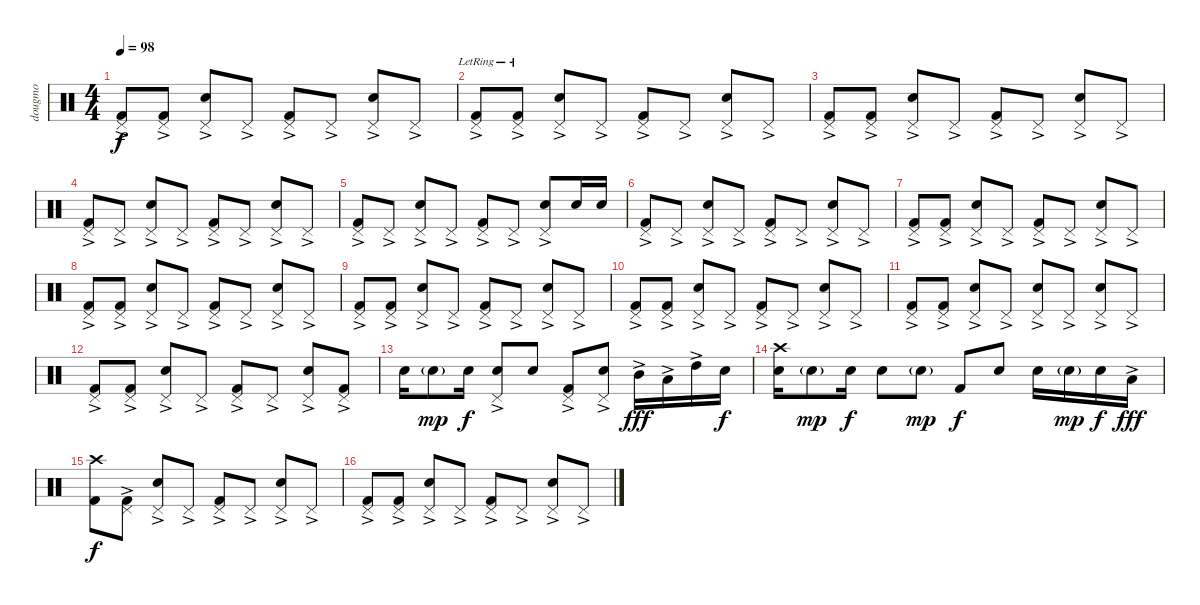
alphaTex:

\track ("dougmo" "dougmo") {instrument percussion}
\staff {score}
\articulation defaults
\ts (4 4)
\tempo 98
\clef neutral
\ks c
("Pedal Hi-Hat (hit)"{ac} "Kick (hit) 2").8{dy f} ("Pedal Hi-Hat (hit)"{ac} "Kick (hit) 2").8 ("Pedal Hi-Hat (hit)"{ac} "Electric Snare (hit)").8 "Pedal Hi-Hat (hit)"{ac}.8 ("Pedal Hi-Hat (hit)"{ac} "Kick (hit) 2").8 "Pedal Hi-Hat (hit)"{ac}.8 ("Pedal Hi-Hat (hit)"{ac} "Electric Snare (hit)").8 "Pedal Hi-Hat (hit)"{ac}.8 |
("Pedal Hi-Hat (hit)"{ac lr} "Kick (hit) 2").8 ("Pedal Hi-Hat (hit)"{ac lr} "Kick (hit) 2").8 ("Pedal Hi-Hat (hit)"{ac} "Electric Snare (hit)").8 "Pedal Hi-Hat (hit)"{ac}.8 ("Pedal Hi-Hat (hit)"{ac} "Kick (hit) 2").8 "Pedal Hi-Hat (hit)"{ac}.8 ("Pedal Hi-Hat (hit)"{ac} "Electric Snare (hit)").8 "Pedal Hi-Hat (hit)"{ac}.8 |
("Pedal Hi-Hat (hit)"{ac} "Kick (hit) 2").8 ("Pedal Hi-Hat (hit)"{ac} "Kick (hit) 2").8 ("Pedal Hi-Hat (hit)"{ac} "Electric Snare (hit)").8 "Pedal Hi-Hat (hit)"{ac}.8 ("Pedal Hi-Hat (hit)"{ac} "Kick (hit) 2").8 "Pedal Hi-Hat (hit)"{ac}.8 ("Pedal Hi-Hat (hit)"{ac} "Electric Snare (hit)").8 "Pedal Hi-Hat (hit)"{ac}.8 |
("Pedal Hi-Hat (hit)"{ac} "Kick (hit) 2").8 "Pedal Hi-Hat (hit)"{ac}.8 ("Pedal Hi-Hat (hit)"{ac} "Electric Snare (hit)").8 "Pedal Hi-Hat (hit)"{ac}.8 ("Pedal Hi-Hat (hit)"{ac} "Kick (hit) 2").8 "Pedal Hi-Hat (hit)"{ac}.8 ("Pedal Hi-Hat (hit)"{ac} "Electric Snare (hit)").8 "Pedal Hi-Hat (hit)"{ac}.8 |
("Pedal Hi-Hat (hit)"{ac} "Kick (hit) 2").8 "Pedal Hi-Hat (hit)"{ac}.8 ("Pedal Hi-Hat (hit)"{ac} "Electric Snare (hit)").8 "Pedal Hi-Hat (hit)"{ac}.8 ("Pedal Hi-Hat (hit)"{ac} "Kick (hit) 2").8 "Pedal Hi-Hat (hit)"{ac}.8 ("Pedal Hi-Hat (hit)"{ac} "Electric Snare (hit)").8 "Electric Snare (hit)".16 "Electric Snare (hit)".16 |
("Pedal Hi-Hat (hit)"{ac} "Kick (hit) 2").8 "Pedal Hi-Hat (hit)"{ac}.8 ("Pedal Hi-Hat (hit)"{ac} "Electric Snare (hit)").8 "Pedal Hi-Hat (hit)"{ac}.8 ("Pedal Hi-Hat (hit)"{ac} "Kick (hit) 2").8 "Pedal Hi-Hat (hit)"{ac}.8 ("Pedal Hi-Hat (hit)"{ac} "Electric Snare (hit)").8 "Pedal Hi-Hat (hit)"{ac}.8 |
("Pedal Hi-Hat (hit)"{ac} "Kick (hit) 2").8 ("Pedal Hi-Hat (hit)"{ac} "Kick (hit) 2").8 ("Pedal Hi-Hat (hit)"{ac} "Electric Snare (hit)").8 "Pedal Hi-Hat (hit)"{ac}.8 ("Pedal Hi-Hat (hit)"{ac} "Kick (hit) 2").8 "Pedal Hi-Hat (hit)"{ac}.8 ("Pedal Hi-Hat (hit)"{ac} "Electric Snare (hit)").8 "Pedal Hi-Hat (hit)"{ac}.8 |
("Pedal Hi-Hat (hit)"{ac} "Kick (hit) 2").8 ("Pedal Hi-Hat (hit)"{ac} "Kick (hit) 2").8 ("Pedal Hi-Hat (hit)"{ac} "Electric Snare (hit)").8 "Pedal Hi-Hat (hit)"{ac}.8 ("Pedal Hi-Hat (hit)"{ac} "Kick (hit) 2").8 "Pedal Hi-Hat (hit)"{ac}.8 ("Pedal Hi-Hat (hit)"{ac} "Electric Snare (hit)").8 "Pedal Hi-Hat (hit)"{ac}.8 |
("Pedal Hi-Hat (hit)"{ac} "Kick (hit) 2").8 ("Pedal Hi-Hat (hit)"{ac} "Kick (hit) 2").8 ("Pedal Hi-Hat (hit)"{ac} "Electric Snare (hit)").8 "Pedal Hi-Hat (hit)"{ac}.8 ("Pedal Hi-Hat (hit)"{ac} "Kick (hit) 2").8 "Pedal Hi-Hat (hit)"{ac}.8 ("Pedal Hi-Hat (hit)"{ac} "Electric Snare (hit)").8 "Pedal Hi-Hat (hit)"{ac}.8 |
("Pedal Hi-Hat (hit)"{ac} "Kick (hit) 2").8 ("Pedal Hi-Hat (hit)"{ac} "Kick (hit) 2").8 ("Pedal Hi-Hat (hit)"{ac} "Electric Snare (hit)").8 "Pedal Hi-Hat (hit)"{ac}.8 ("Pedal Hi-Hat (hit)"{ac} "Kick (hit) 2").8 "Pedal Hi-Hat (hit)"{ac}.8 ("Pedal Hi-Hat (hit)"{ac} "Electric Snare (hit)").8 "Pedal Hi-Hat (hit)"{ac}.8 |
("Pedal Hi-Hat (hit)"{ac} "Kick (hit) 2").8 ("Pedal Hi-Hat (hit)"{ac} "Kick (hit) 2").8 ("Pedal Hi-Hat (hit)"{ac} "Electric Snare (hit)").8 "Pedal Hi-Hat (hit)"{ac}.8 ("Pedal Hi-Hat (hit)"{ac} "Electric Snare (hit)").8 "Pedal Hi-Hat (hit)"{ac}.8 ("Pedal Hi-Hat (hit)"{ac} "Electric Snare (hit)").8 "Pedal Hi-Hat (hit)"{ac}.8 |
("Pedal Hi-Hat (hit)"{ac} "Kick (hit) 2").8 ("Pedal Hi-Hat (hit)"{ac} "Kick (hit) 2").8 ("Pedal Hi-Hat (hit)"{ac} "Electric Snare (hit)").8 "Pedal Hi-Hat (hit)"{ac}.8 ("Pedal Hi-Hat (hit)"{ac} "Kick (hit) 2").8 "Pedal Hi-Hat (hit)"{ac}.8 ("Pedal Hi-Hat (hit)"{ac} "Electric Snare (hit)").8 ("Pedal Hi-Hat (hit)"{ac} "Kick (hit) 2").8 |
"Electric Snare (hit)".16 "Electric Snare (hit)"{g}.8{dy mp} "Electric Snare (hit)".16{dy f} ("Pedal Hi-Hat (hit)"{ac} "Electric Snare (hit)").8 "Electric Snare (hit)".8 ("Pedal Hi-Hat (hit)"{ac} "Kick (hit) 2").8 ("Pedal Hi-Hat (hit)"{ac} "Electric Snare (hit)").8 "Mid Tom (hit)"{ac}.16{dy fff} "Low Tom (hit)"{ac}.16 "High Tom (hit)"{ac}.16 "Electric Snare (hit)".16{dy f} |
("Crash high (hit)" "Electric Snare (hit)").16 "Electric Snare (hit)"{g}.8{dy mp} "Electric Snare (hit)".16{dy f} "Electric Snare (hit)".8 "Electric Snare (hit)"{g}.8{dy mp} "Kick (hit) 2".8{dy f} "Electric Snare (hit)".8 "Electric Snare (hit)".16 "Electric Snare (hit)"{g}.16{dy mp} "Electric Snare (hit)".16{dy f} "Low Tom (hit)"{ac}.16{dy fff} |
("Crash high (hit)" "Kick (hit) 2").8{dy f} ("Pedal Hi-Hat (hit)"{ac} "Kick (hit) 2").8 ("Pedal Hi-Hat (hit)"{ac} "Electric Snare (hit)").8 "Pedal Hi-Hat (hit)"{ac}.8 ("Pedal Hi-Hat (hit)"{ac} "Kick (hit) 2").8 "Pedal Hi-Hat (hit)"{ac}.8 ("Pedal Hi-Hat (hit)"{ac} "Electric Snare (hit)").8 "Pedal Hi-Hat (hit)"{ac}.8 |
("Pedal Hi-Hat (hit)"{ac} "Kick (hit) 2").8 ("Pedal Hi-Hat (hit)"{ac} "Kick (hit) 2").8 ("Pedal Hi-Hat (hit)"{ac} "Electric Snare (hit)").8 "Pedal Hi-Hat (hit)"{ac}.8 ("Pedal Hi-Hat (hit)"{ac} "Kick (hit) 2").8 "Pedal Hi-Hat (hit)"{ac}.8 ("Pedal Hi-Hat (hit)"{ac} "Electric Snare (hit)").8 "Pedal Hi-Hat (hit)"{ac}.8
